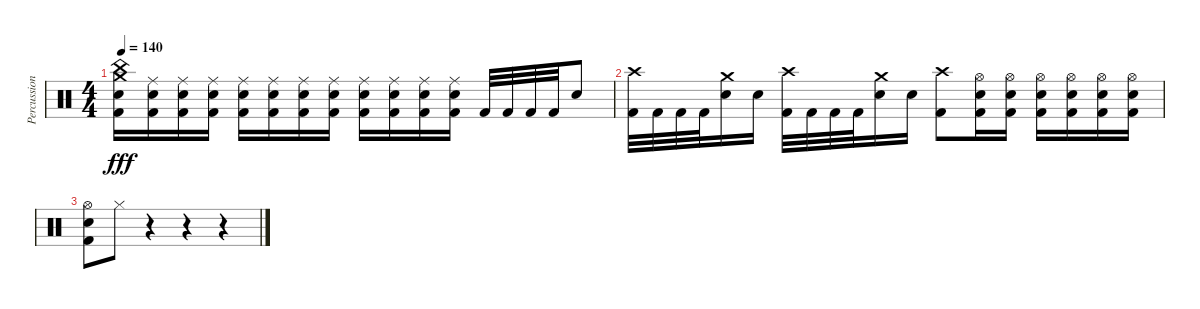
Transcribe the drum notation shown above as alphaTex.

\track ("Percussion" "Percussion") {instrument percussion}
\staff {score}
\articulation defaults
\ts (4 4)
\tempo 140
\clef neutral
\ks c
("China (hit)" "Crash medium (hit)" "Electric Snare (hit)" "Kick (hit) 2").16{dy fff} ("Ride (middle)" "Electric Snare (hit)" "Kick (hit) 2").16 ("Ride (middle)" "Electric Snare (hit)" "Kick (hit) 2").16 ("Ride (middle)" "Electric Snare (hit)" "Kick (hit) 2").16 ("Ride (middle)" "Electric Snare (hit)" "Kick (hit) 2").16 ("Ride (middle)" "Electric Snare (hit)" "Kick (hit) 2").16 ("Ride (middle)" "Electric Snare (hit)" "Kick (hit) 2").16 ("Ride (middle)" "Electric Snare (hit)" "Kick (hit) 2").16 ("Ride (middle)" "Electric Snare (hit)" "Kick (hit) 2").16 ("Ride (middle)" "Electric Snare (hit)" "Kick (hit) 2").16 ("Ride (middle)" "Electric Snare (hit)" "Kick (hit) 2").16 ("Ride (middle)" "Electric Snare (hit)" "Kick (hit) 2").16 "Kick (hit) 2".32 "Kick (hit) 2".32 "Kick (hit) 2".32 "Kick (hit) 2".32 "Electric Snare (hit)".8 |
("Crash high (hit)" "Kick (hit) 2").32 "Kick (hit) 2".32 "Kick (hit) 2".32 "Kick (hit) 2".32 ("Crash medium (hit)" "Electric Snare (hit)").16 "Electric Snare (hit)".16 ("Crash high (hit)" "Kick (hit) 2").32 "Kick (hit) 2".32 "Kick (hit) 2".32 "Kick (hit) 2".32 ("Crash medium (hit)" "Electric Snare (hit)").16 "Electric Snare (hit)".16 ("Crash high (hit)" "Kick (hit) 2").8 ("Hi-Hat (open)" "Electric Snare (hit)" "Kick (hit) 2").16 ("Hi-Hat (open)" "Electric Snare (hit)" "Kick (hit) 2").16 ("Hi-Hat (open)" "Electric Snare (hit)" "Kick (hit) 2").16 ("Hi-Hat (open)" "Electric Snare (hit)" "Kick (hit) 2").16 ("Hi-Hat (open)" "Electric Snare (hit)" "Kick (hit) 2").16 ("Hi-Hat (open)" "Electric Snare (hit)" "Kick (hit) 2").16 |
("Hi-Hat (open)" "Electric Snare (hit)" "Kick (hit) 2").8 "Hi-Hat (closed)".8 r.4 r.4 r.4
